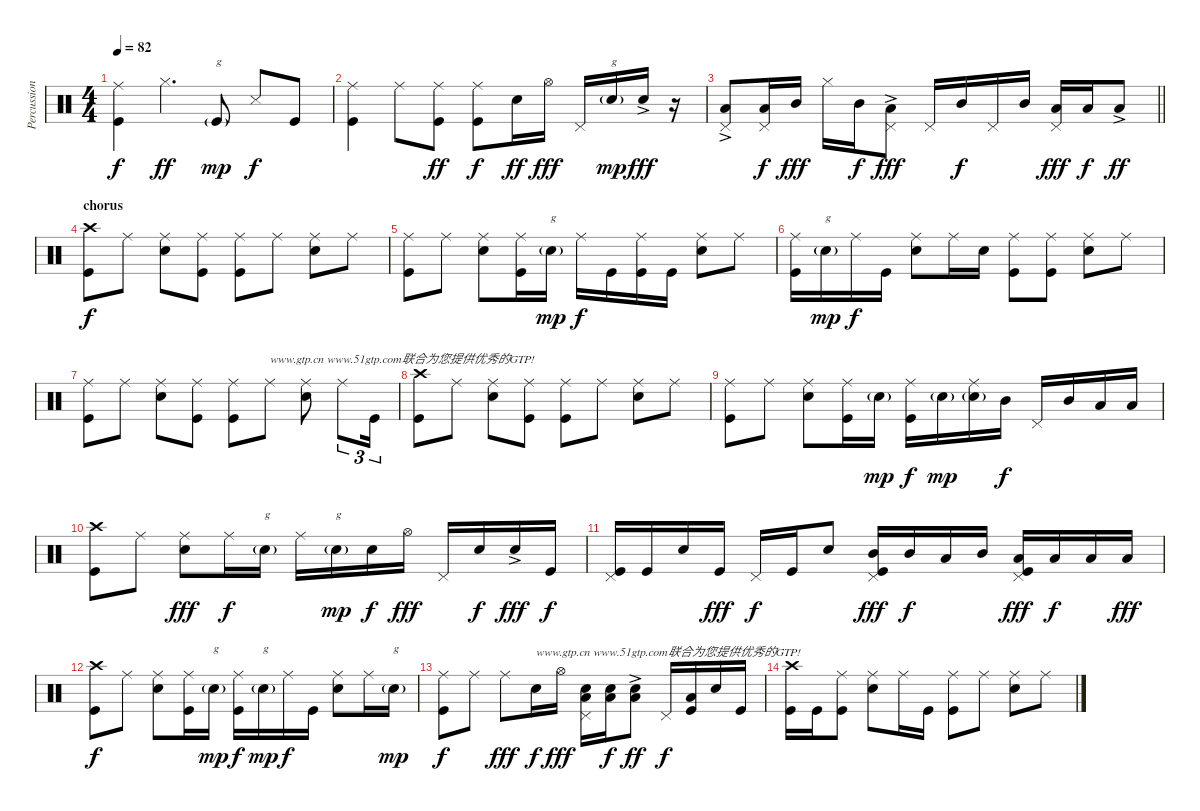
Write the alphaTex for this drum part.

\track ("Percussion" "Percussion") {instrument percussion}
\staff {score}
\articulation defaults
\ts (4 4)
\tempo 82
\clef neutral
\ks c
("Ride (middle)" "Kick (hit)").4{dy f} "Hi-Hat (closed)".4{d dy ff} "Kick (hit)"{g}.8{txt "g" dy mp} "Snare (side stick) 3".8{dy f} "Kick (hit)".8 |
("Ride (middle)" "Kick (hit)").4 "Ride (middle)".8 ("Ride (middle)" "Kick (hit)").8{dy ff} ("Ride (middle)" "Kick (hit)").8{dy f} "Electric Snare (hit)".16{dy ff} "Hi-Hat (open)".16{dy fff} "Pedal Hi-Hat (hit)".16 "Electric Snare (hit)"{g}.16{txt "g" dy mp} "Electric Snare (hit)"{ac}.16{dy fff} r.16 |
\barLineRight lightlight
("Low Tom (hit)"{ac} "Pedal Hi-Hat (hit)").8 ("Low Tom (hit)" "Pedal Hi-Hat (hit)").16{dy f} "Mid Tom (hit)".16{dy fff} "Hi-Hat (closed)".16 "Mid Tom (hit)".16{dy f} ("Low Tom (hit)"{ac} "Pedal Hi-Hat (hit)").8{dy fff} "Pedal Hi-Hat (hit)".16 "Mid Tom (hit)".16{dy f} "Pedal Hi-Hat (hit)".16 "Mid Tom (hit)".16 ("Pedal Hi-Hat (hit)" "Low Tom (hit)").16{dy fff} "Low Tom (hit)".16{dy f} "Low Floor Tom (hit)"{ac}.8{dy ff} |
\section ("" "chorus")
("Crash high (hit)" "Kick (hit)").8{dy f} "Ride (middle)".8 ("Ride (middle)" "Electric Snare (hit)").8 ("Ride (middle)" "Kick (hit)").8 ("Ride (middle)" "Kick (hit)").8 "Ride (middle)".8 ("Ride (middle)" "Electric Snare (hit)").8 "Ride (middle)".8 |
("Ride (middle)" "Kick (hit)").8 "Ride (middle)".8 ("Ride (middle)" "Electric Snare (hit)").8 ("Ride (middle)" "Kick (hit)").16 "Electric Snare (hit)"{g}.16{txt "g" dy mp} "Ride (middle)".16{dy f} "Kick (hit)".16 ("Ride (middle)" "Kick (hit)").16 "Kick (hit)".16 ("Ride (middle)" "Electric Snare (hit)").8 "Ride (middle)".8 |
("Ride (middle)" "Kick (hit)").16 "Electric Snare (hit)"{g}.16{txt "g" dy mp} "Ride (middle)".16{dy f} "Kick (hit)".16 ("Ride (middle)" "Electric Snare (hit)").8 "Ride (middle)".16 "Electric Snare (hit)".16 ("Ride (middle)" "Kick (hit)").8 ("Ride (middle)" "Kick (hit)").8 ("Ride (middle)" "Electric Snare (hit)").8 "Ride (middle)".8 |
("Ride (middle)" "Kick (hit)").8 "Ride (middle)".8 ("Ride (middle)" "Electric Snare (hit)").8 ("Ride (middle)" "Kick (hit)").8 ("Ride (middle)" "Kick (hit)").8 "Ride (middle)".8{txt "www.gtp.cn www.51gtp.com联合为您提供优秀的GTP!"} ("Ride (middle)" "Electric Snare (hit)").8 "Ride (middle)".8{tu (3 2)} "Kick (hit)".16{tu (3 2)} |
("Crash high (hit)" "Kick (hit)").8 "Ride (middle)".8 ("Ride (middle)" "Electric Snare (hit)").8 ("Ride (middle)" "Kick (hit)").8 ("Ride (middle)" "Kick (hit)").8 "Ride (middle)".8 ("Ride (middle)" "Electric Snare (hit)").8 "Ride (middle)".8 |
("Ride (middle)" "Kick (hit)").8 "Ride (middle)".8 ("Ride (middle)" "Electric Snare (hit)").8 ("Ride (middle)" "Kick (hit)").16 "Electric Snare (hit)"{g}.16{dy mp} ("Ride (middle)" "Kick (hit)").16{dy f} "Electric Snare (hit)"{g}.16{dy mp} ("Ride (middle)" "Electric Snare (hit)"{g}).16 "Mid Tom (hit)".16{dy f} "Pedal Hi-Hat (hit)".16 "Mid Tom (hit)".16 "Low Tom (hit)".16 "Low Tom (hit)".16 |
("Crash high (hit)" "Kick (hit)").8 "Ride (middle)".8 ("Ride (middle)" "Electric Snare (hit)").8{dy fff} "Ride (middle)".16{dy f} "Electric Snare (hit)"{g}.16{txt "g"} "Ride (middle)".16 "Electric Snare (hit)"{g}.16{txt "g" dy mp} "Electric Snare (hit)".16{dy f} "Hi-Hat (open)".16{dy fff} "Pedal Hi-Hat (hit)".16 "Electric Snare (hit)".16{dy f} "Electric Snare (hit)"{ac}.16{dy fff} "Kick (hit)".16{dy f} |
("Kick (hit)" "Pedal Hi-Hat (hit)").16 "Kick (hit)".16 "Electric Snare (hit)".16 "Kick (hit)".16{dy fff} "Pedal Hi-Hat (hit)".16{dy f} "Kick (hit)".16 "Electric Snare (hit)".8 ("Pedal Hi-Hat (hit)" "Mid Tom (hit)" "Kick (hit)").16{dy fff} "Mid Tom (hit)".16{dy f} "Low Tom (hit)".16 "Mid Tom (hit)".16 ("Pedal Hi-Hat (hit)" "Low Tom (hit)" "Kick (hit)").16{dy fff} "Low Tom (hit)".16{dy f} "Low Floor Tom (hit)".16 "Low Floor Tom (hit)".16{dy fff} |
("Crash high (hit)" "Kick (hit)").8{dy f} "Ride (middle)".8 ("Ride (middle)" "Electric Snare (hit)").8 ("Ride (middle)" "Kick (hit)").16 "Electric Snare (hit)"{g}.16{txt "g" dy mp} ("Ride (middle)" "Kick (hit)").16{dy f} "Electric Snare (hit)"{g}.16{txt "g" dy mp} "Ride (middle)".16{dy f} "Kick (hit)".16 ("Ride (middle)" "Electric Snare (hit)").8 "Ride (middle)".16 "Electric Snare (hit)"{g}.16{txt "g" dy mp} |
("Ride (middle)" "Kick (hit)").8{dy f} "Ride (middle)".8 "Ride (middle)".8{dy fff} "Electric Snare (hit)".16{txt "www.gtp.cn www.51gtp.com联合为您提供优秀的GTP!" dy f} "Hi-Hat (open)".16{dy fff} ("Pedal Hi-Hat (hit)" "Low Floor Tom (hit)" "Electric Snare (hit)").16 ("Electric Snare (hit)" "Low Floor Tom (hit)").16{dy f} ("Electric Snare (hit)"{ac} "Low Floor Tom (hit)"{ac}).8{dy ff} "Pedal Hi-Hat (hit)".16{dy f} ("Low Floor Tom (hit)" "Kick (hit)").16 "Electric Snare (hit)".16 "Kick (hit)".16 |
("Crash high (hit)" "Kick (hit)").16 "Kick (hit)".16 ("Ride (middle)" "Kick (hit)").8 ("Ride (middle)" "Electric Snare (hit)").8 "Ride (middle)".16 "Kick (hit)".16 ("Ride (middle)" "Kick (hit)").8 "Ride (middle)".8 ("Ride (middle)" "Electric Snare (hit)").8 "Ride (middle)".8
